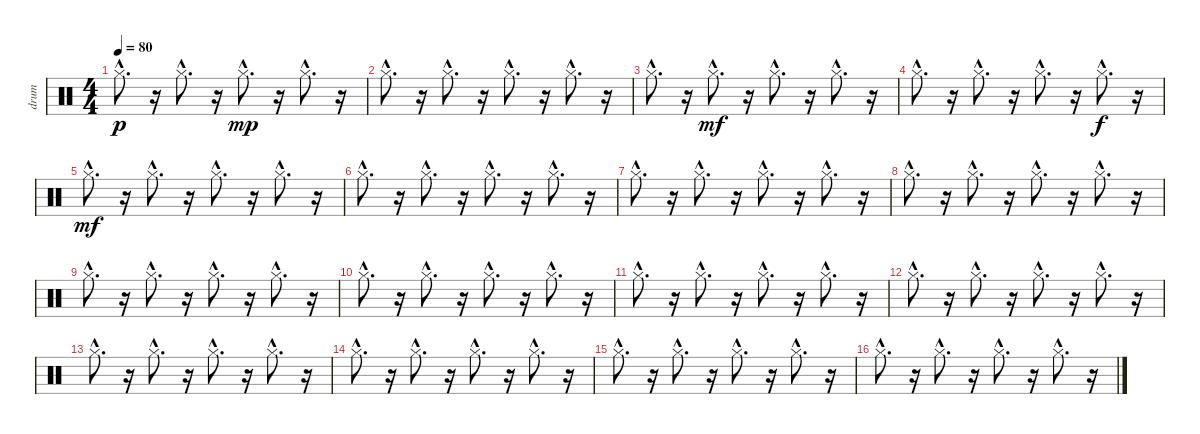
\track ("drum" "drum") {instrument percussion}
\staff {score}
\articulation defaults
\ts (4 4)
\tempo 80
\clef neutral
\ks c "Hi-Hat (closed)"{hac}.8{d dy p}
r.16 "Hi-Hat (closed)"{hac}.8{d} r.16 "Hi-Hat (closed)"{hac}.8{d dy mp} r.16 "Hi-Hat (closed)"{hac}.8{d} r.16 |
"Hi-Hat (closed)"{hac}.8{d} r.16 "Hi-Hat (closed)"{hac}.8{d} r.16 "Hi-Hat (closed)"{hac}.8{d} r.16 "Hi-Hat (closed)"{hac}.8{d} r.16 |
"Hi-Hat (closed)"{hac}.8{d} r.16 "Hi-Hat (closed)"{hac}.8{d dy mf} r.16 "Hi-Hat (closed)"{hac}.8{d} r.16 "Hi-Hat (closed)"{hac}.8{d} r.16 |
"Hi-Hat (closed)"{hac}.8{d} r.16 "Hi-Hat (closed)"{hac}.8{d} r.16 "Hi-Hat (closed)"{hac}.8{d} r.16 "Hi-Hat (closed)"{hac}.8{d dy f} r.16 |
"Hi-Hat (closed)"{hac}.8{d dy mf} r.16 "Hi-Hat (closed)"{hac}.8{d} r.16 "Hi-Hat (closed)"{hac}.8{d} r.16 "Hi-Hat (closed)"{hac}.8{d} r.16 |
"Hi-Hat (closed)"{hac}.8{d} r.16 "Hi-Hat (closed)"{hac}.8{d} r.16 "Hi-Hat (closed)"{hac}.8{d} r.16 "Hi-Hat (closed)"{hac}.8{d} r.16 |
"Hi-Hat (closed)"{hac}.8{d} r.16 "Hi-Hat (closed)"{hac}.8{d} r.16 "Hi-Hat (closed)"{hac}.8{d} r.16 "Hi-Hat (closed)"{hac}.8{d} r.16 |
"Hi-Hat (closed)"{hac}.8{d} r.16 "Hi-Hat (closed)"{hac}.8{d} r.16 "Hi-Hat (closed)"{hac}.8{d} r.16 "Hi-Hat (closed)"{hac}.8{d} r.16 |
"Hi-Hat (closed)"{hac}.8{d} r.16 "Hi-Hat (closed)"{hac}.8{d} r.16 "Hi-Hat (closed)"{hac}.8{d} r.16 "Hi-Hat (closed)"{hac}.8{d} r.16 |
"Hi-Hat (closed)"{hac}.8{d} r.16 "Hi-Hat (closed)"{hac}.8{d} r.16 "Hi-Hat (closed)"{hac}.8{d} r.16 "Hi-Hat (closed)"{hac}.8{d} r.16 |
"Hi-Hat (closed)"{hac}.8{d} r.16 "Hi-Hat (closed)"{hac}.8{d} r.16 "Hi-Hat (closed)"{hac}.8{d} r.16 "Hi-Hat (closed)"{hac}.8{d} r.16 |
"Hi-Hat (closed)"{hac}.8{d} r.16 "Hi-Hat (closed)"{hac}.8{d} r.16 "Hi-Hat (closed)"{hac}.8{d} r.16 "Hi-Hat (closed)"{hac}.8{d} r.16 |
"Hi-Hat (closed)"{hac}.8{d} r.16 "Hi-Hat (closed)"{hac}.8{d} r.16 "Hi-Hat (closed)"{hac}.8{d} r.16 "Hi-Hat (closed)"{hac}.8{d} r.16 |
"Hi-Hat (closed)"{hac}.8{d} r.16 "Hi-Hat (closed)"{hac}.8{d} r.16 "Hi-Hat (closed)"{hac}.8{d} r.16 "Hi-Hat (closed)"{hac}.8{d} r.16 |
"Hi-Hat (closed)"{hac}.8{d} r.16 "Hi-Hat (closed)"{hac}.8{d} r.16 "Hi-Hat (closed)"{hac}.8{d} r.16 "Hi-Hat (closed)"{hac}.8{d} r.16 |
"Hi-Hat (closed)"{hac}.8{d} r.16 "Hi-Hat (closed)"{hac}.8{d} r.16 "Hi-Hat (closed)"{hac}.8{d} r.16 "Hi-Hat (closed)"{hac}.8{d} r.16
